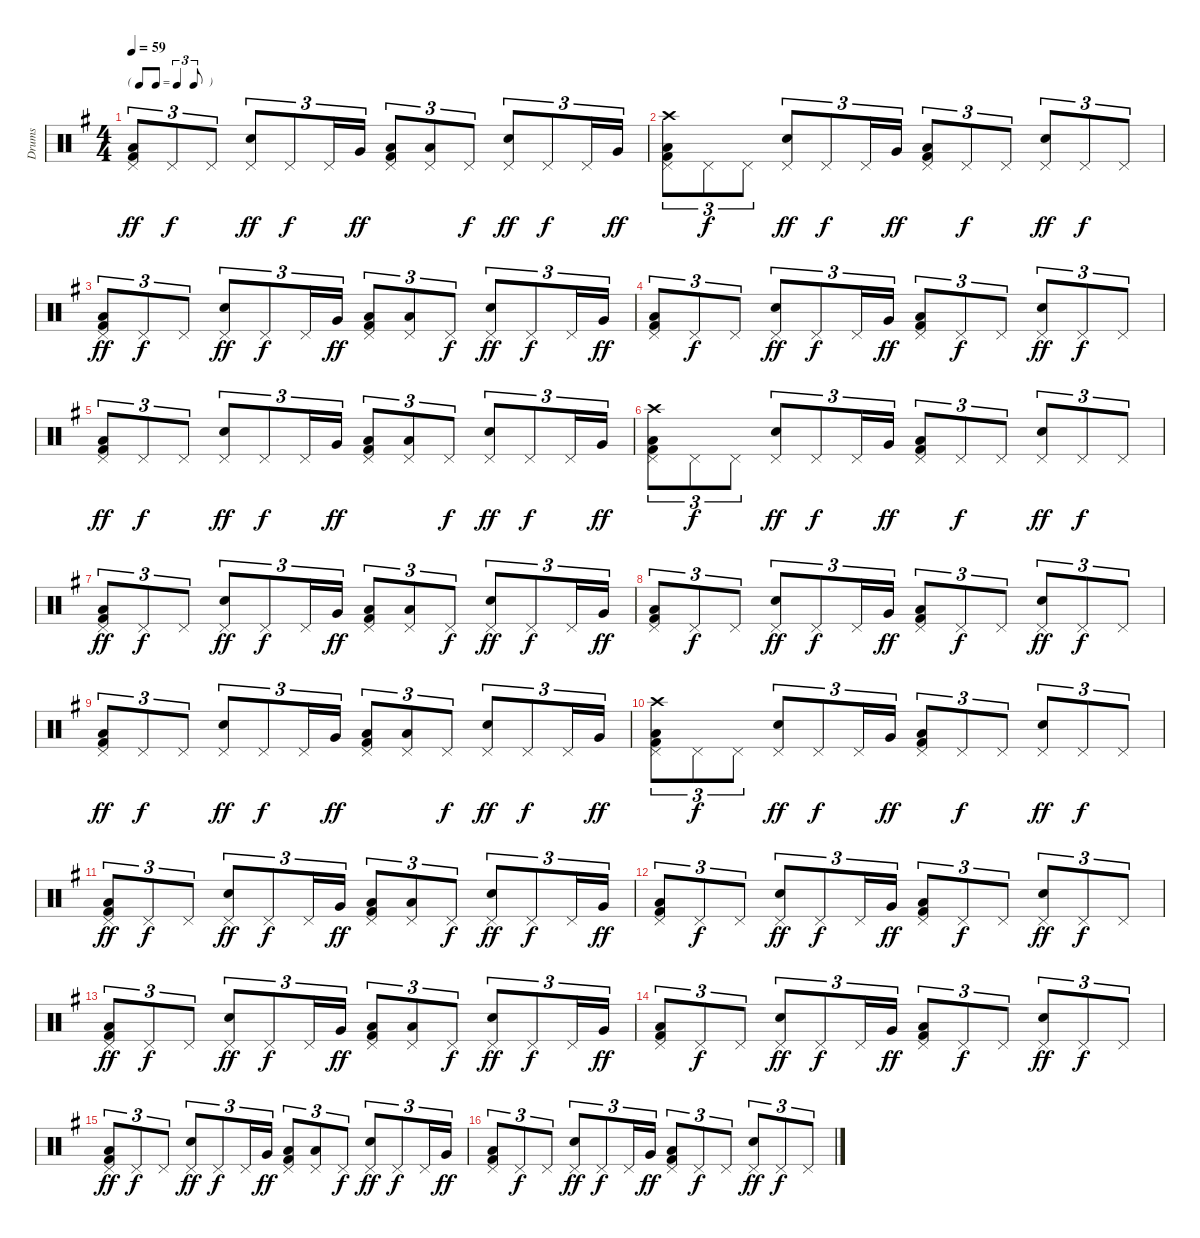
\track ("Drums" "Drums") {instrument percussion}
\staff {score}
\articulation defaults
\ts (4 4)
\tf triplet8th
\tempo 59
\clef neutral
\ks g
("Pedal Hi-Hat (hit)" "Low Floor Tom (hit)" "Kick (hit) 2").8{tu (3 2) dy ff} "Pedal Hi-Hat (hit)".8{tu (3 2) dy f} "Pedal Hi-Hat (hit)".8{tu (3 2)} ("Pedal Hi-Hat (hit)" "Electric Snare (hit)").8{tu (3 2) dy ff} "Pedal Hi-Hat (hit)".8{tu (3 2) dy f} "Pedal Hi-Hat (hit)".16{tu (3 2)} "Very Low Tom (hit)".16{tu (3 2) dy ff} ("Pedal Hi-Hat (hit)" "Low Floor Tom (hit)" "Kick (hit) 2").8{tu (3 2)} ("Pedal Hi-Hat (hit)" "Low Floor Tom (hit)").8{tu (3 2)} "Pedal Hi-Hat (hit)".8{tu (3 2) dy f} ("Pedal Hi-Hat (hit)" "Electric Snare (hit)").8{tu (3 2) dy ff} "Pedal Hi-Hat (hit)".8{tu (3 2) dy f} "Pedal Hi-Hat (hit)".16{tu (3 2)} "Very Low Tom (hit)".16{tu (3 2) dy ff} |
("Pedal Hi-Hat (hit)" "Crash high (hit)" "Low Floor Tom (hit)" "Kick (hit) 2").8{tu (3 2)} "Pedal Hi-Hat (hit)".8{tu (3 2) dy f} "Pedal Hi-Hat (hit)".8{tu (3 2)} ("Pedal Hi-Hat (hit)" "Electric Snare (hit)").8{tu (3 2) dy ff} "Pedal Hi-Hat (hit)".8{tu (3 2) dy f} "Pedal Hi-Hat (hit)".16{tu (3 2)} "Very Low Tom (hit)".16{tu (3 2) dy ff} ("Pedal Hi-Hat (hit)" "Low Floor Tom (hit)" "Kick (hit) 2").8{tu (3 2)} "Pedal Hi-Hat (hit)".8{tu (3 2) dy f} "Pedal Hi-Hat (hit)".8{tu (3 2)} ("Pedal Hi-Hat (hit)" "Electric Snare (hit)").8{tu (3 2) dy ff} "Pedal Hi-Hat (hit)".8{tu (3 2) dy f} "Pedal Hi-Hat (hit)".8{tu (3 2)} |
("Pedal Hi-Hat (hit)" "Low Floor Tom (hit)" "Kick (hit) 2").8{tu (3 2) dy ff} "Pedal Hi-Hat (hit)".8{tu (3 2) dy f} "Pedal Hi-Hat (hit)".8{tu (3 2)} ("Pedal Hi-Hat (hit)" "Electric Snare (hit)").8{tu (3 2) dy ff} "Pedal Hi-Hat (hit)".8{tu (3 2) dy f} "Pedal Hi-Hat (hit)".16{tu (3 2)} "Very Low Tom (hit)".16{tu (3 2) dy ff} ("Pedal Hi-Hat (hit)" "Low Floor Tom (hit)" "Kick (hit) 2").8{tu (3 2)} ("Pedal Hi-Hat (hit)" "Low Floor Tom (hit)").8{tu (3 2)} "Pedal Hi-Hat (hit)".8{tu (3 2) dy f} ("Pedal Hi-Hat (hit)" "Electric Snare (hit)").8{tu (3 2) dy ff} "Pedal Hi-Hat (hit)".8{tu (3 2) dy f} "Pedal Hi-Hat (hit)".16{tu (3 2)} "Very Low Tom (hit)".16{tu (3 2) dy ff} |
("Pedal Hi-Hat (hit)" "Low Floor Tom (hit)" "Kick (hit) 2").8{tu (3 2)} "Pedal Hi-Hat (hit)".8{tu (3 2) dy f} "Pedal Hi-Hat (hit)".8{tu (3 2)} ("Pedal Hi-Hat (hit)" "Electric Snare (hit)").8{tu (3 2) dy ff} "Pedal Hi-Hat (hit)".8{tu (3 2) dy f} "Pedal Hi-Hat (hit)".16{tu (3 2)} "Very Low Tom (hit)".16{tu (3 2) dy ff} ("Pedal Hi-Hat (hit)" "Low Floor Tom (hit)" "Kick (hit) 2").8{tu (3 2)} "Pedal Hi-Hat (hit)".8{tu (3 2) dy f} "Pedal Hi-Hat (hit)".8{tu (3 2)} ("Pedal Hi-Hat (hit)" "Electric Snare (hit)").8{tu (3 2) dy ff} "Pedal Hi-Hat (hit)".8{tu (3 2) dy f} "Pedal Hi-Hat (hit)".8{tu (3 2)} |
("Pedal Hi-Hat (hit)" "Low Floor Tom (hit)" "Kick (hit) 2").8{tu (3 2) dy ff} "Pedal Hi-Hat (hit)".8{tu (3 2) dy f} "Pedal Hi-Hat (hit)".8{tu (3 2)} ("Pedal Hi-Hat (hit)" "Electric Snare (hit)").8{tu (3 2) dy ff} "Pedal Hi-Hat (hit)".8{tu (3 2) dy f} "Pedal Hi-Hat (hit)".16{tu (3 2)} "Very Low Tom (hit)".16{tu (3 2) dy ff} ("Pedal Hi-Hat (hit)" "Low Floor Tom (hit)" "Kick (hit) 2").8{tu (3 2)} ("Pedal Hi-Hat (hit)" "Low Floor Tom (hit)").8{tu (3 2)} "Pedal Hi-Hat (hit)".8{tu (3 2) dy f} ("Pedal Hi-Hat (hit)" "Electric Snare (hit)").8{tu (3 2) dy ff} "Pedal Hi-Hat (hit)".8{tu (3 2) dy f} "Pedal Hi-Hat (hit)".16{tu (3 2)} "Very Low Tom (hit)".16{tu (3 2) dy ff} |
("Pedal Hi-Hat (hit)" "Crash high (hit)" "Low Floor Tom (hit)" "Kick (hit) 2").8{tu (3 2)} "Pedal Hi-Hat (hit)".8{tu (3 2) dy f} "Pedal Hi-Hat (hit)".8{tu (3 2)} ("Pedal Hi-Hat (hit)" "Electric Snare (hit)").8{tu (3 2) dy ff} "Pedal Hi-Hat (hit)".8{tu (3 2) dy f} "Pedal Hi-Hat (hit)".16{tu (3 2)} "Very Low Tom (hit)".16{tu (3 2) dy ff} ("Pedal Hi-Hat (hit)" "Low Floor Tom (hit)" "Kick (hit) 2").8{tu (3 2)} "Pedal Hi-Hat (hit)".8{tu (3 2) dy f} "Pedal Hi-Hat (hit)".8{tu (3 2)} ("Pedal Hi-Hat (hit)" "Electric Snare (hit)").8{tu (3 2) dy ff} "Pedal Hi-Hat (hit)".8{tu (3 2) dy f} "Pedal Hi-Hat (hit)".8{tu (3 2)} |
("Pedal Hi-Hat (hit)" "Low Floor Tom (hit)" "Kick (hit) 2").8{tu (3 2) dy ff} "Pedal Hi-Hat (hit)".8{tu (3 2) dy f} "Pedal Hi-Hat (hit)".8{tu (3 2)} ("Pedal Hi-Hat (hit)" "Electric Snare (hit)").8{tu (3 2) dy ff} "Pedal Hi-Hat (hit)".8{tu (3 2) dy f} "Pedal Hi-Hat (hit)".16{tu (3 2)} "Very Low Tom (hit)".16{tu (3 2) dy ff} ("Pedal Hi-Hat (hit)" "Low Floor Tom (hit)" "Kick (hit) 2").8{tu (3 2)} ("Pedal Hi-Hat (hit)" "Low Floor Tom (hit)").8{tu (3 2)} "Pedal Hi-Hat (hit)".8{tu (3 2) dy f} ("Pedal Hi-Hat (hit)" "Electric Snare (hit)").8{tu (3 2) dy ff} "Pedal Hi-Hat (hit)".8{tu (3 2) dy f} "Pedal Hi-Hat (hit)".16{tu (3 2)} "Very Low Tom (hit)".16{tu (3 2) dy ff} |
("Pedal Hi-Hat (hit)" "Low Floor Tom (hit)" "Kick (hit) 2").8{tu (3 2)} "Pedal Hi-Hat (hit)".8{tu (3 2) dy f} "Pedal Hi-Hat (hit)".8{tu (3 2)} ("Pedal Hi-Hat (hit)" "Electric Snare (hit)").8{tu (3 2) dy ff} "Pedal Hi-Hat (hit)".8{tu (3 2) dy f} "Pedal Hi-Hat (hit)".16{tu (3 2)} "Very Low Tom (hit)".16{tu (3 2) dy ff} ("Pedal Hi-Hat (hit)" "Low Floor Tom (hit)" "Kick (hit) 2").8{tu (3 2)} "Pedal Hi-Hat (hit)".8{tu (3 2) dy f} "Pedal Hi-Hat (hit)".8{tu (3 2)} ("Pedal Hi-Hat (hit)" "Electric Snare (hit)").8{tu (3 2) dy ff} "Pedal Hi-Hat (hit)".8{tu (3 2) dy f} "Pedal Hi-Hat (hit)".8{tu (3 2)} |
("Pedal Hi-Hat (hit)" "Low Floor Tom (hit)" "Kick (hit) 2").8{tu (3 2) dy ff} "Pedal Hi-Hat (hit)".8{tu (3 2) dy f} "Pedal Hi-Hat (hit)".8{tu (3 2)} ("Pedal Hi-Hat (hit)" "Electric Snare (hit)").8{tu (3 2) dy ff} "Pedal Hi-Hat (hit)".8{tu (3 2) dy f} "Pedal Hi-Hat (hit)".16{tu (3 2)} "Very Low Tom (hit)".16{tu (3 2) dy ff} ("Pedal Hi-Hat (hit)" "Low Floor Tom (hit)" "Kick (hit) 2").8{tu (3 2)} ("Pedal Hi-Hat (hit)" "Low Floor Tom (hit)").8{tu (3 2)} "Pedal Hi-Hat (hit)".8{tu (3 2) dy f} ("Pedal Hi-Hat (hit)" "Electric Snare (hit)").8{tu (3 2) dy ff} "Pedal Hi-Hat (hit)".8{tu (3 2) dy f} "Pedal Hi-Hat (hit)".16{tu (3 2)} "Very Low Tom (hit)".16{tu (3 2) dy ff} |
("Pedal Hi-Hat (hit)" "Crash high (hit)" "Low Floor Tom (hit)" "Kick (hit) 2").8{tu (3 2)} "Pedal Hi-Hat (hit)".8{tu (3 2) dy f} "Pedal Hi-Hat (hit)".8{tu (3 2)} ("Pedal Hi-Hat (hit)" "Electric Snare (hit)").8{tu (3 2) dy ff} "Pedal Hi-Hat (hit)".8{tu (3 2) dy f} "Pedal Hi-Hat (hit)".16{tu (3 2)} "Very Low Tom (hit)".16{tu (3 2) dy ff} ("Pedal Hi-Hat (hit)" "Low Floor Tom (hit)" "Kick (hit) 2").8{tu (3 2)} "Pedal Hi-Hat (hit)".8{tu (3 2) dy f} "Pedal Hi-Hat (hit)".8{tu (3 2)} ("Pedal Hi-Hat (hit)" "Electric Snare (hit)").8{tu (3 2) dy ff} "Pedal Hi-Hat (hit)".8{tu (3 2) dy f} "Pedal Hi-Hat (hit)".8{tu (3 2)} |
("Pedal Hi-Hat (hit)" "Low Floor Tom (hit)" "Kick (hit) 2").8{tu (3 2) dy ff} "Pedal Hi-Hat (hit)".8{tu (3 2) dy f} "Pedal Hi-Hat (hit)".8{tu (3 2)} ("Pedal Hi-Hat (hit)" "Electric Snare (hit)").8{tu (3 2) dy ff} "Pedal Hi-Hat (hit)".8{tu (3 2) dy f} "Pedal Hi-Hat (hit)".16{tu (3 2)} "Very Low Tom (hit)".16{tu (3 2) dy ff} ("Pedal Hi-Hat (hit)" "Low Floor Tom (hit)" "Kick (hit) 2").8{tu (3 2)} ("Pedal Hi-Hat (hit)" "Low Floor Tom (hit)").8{tu (3 2)} "Pedal Hi-Hat (hit)".8{tu (3 2) dy f} ("Pedal Hi-Hat (hit)" "Electric Snare (hit)").8{tu (3 2) dy ff} "Pedal Hi-Hat (hit)".8{tu (3 2) dy f} "Pedal Hi-Hat (hit)".16{tu (3 2)} "Very Low Tom (hit)".16{tu (3 2) dy ff} |
("Pedal Hi-Hat (hit)" "Low Floor Tom (hit)" "Kick (hit) 2").8{tu (3 2)} "Pedal Hi-Hat (hit)".8{tu (3 2) dy f} "Pedal Hi-Hat (hit)".8{tu (3 2)} ("Pedal Hi-Hat (hit)" "Electric Snare (hit)").8{tu (3 2) dy ff} "Pedal Hi-Hat (hit)".8{tu (3 2) dy f} "Pedal Hi-Hat (hit)".16{tu (3 2)} "Very Low Tom (hit)".16{tu (3 2) dy ff} ("Pedal Hi-Hat (hit)" "Low Floor Tom (hit)" "Kick (hit) 2").8{tu (3 2)} "Pedal Hi-Hat (hit)".8{tu (3 2) dy f} "Pedal Hi-Hat (hit)".8{tu (3 2)} ("Pedal Hi-Hat (hit)" "Electric Snare (hit)").8{tu (3 2) dy ff} "Pedal Hi-Hat (hit)".8{tu (3 2) dy f} "Pedal Hi-Hat (hit)".8{tu (3 2)} |
("Pedal Hi-Hat (hit)" "Low Floor Tom (hit)" "Kick (hit) 2").8{tu (3 2) dy ff} "Pedal Hi-Hat (hit)".8{tu (3 2) dy f} "Pedal Hi-Hat (hit)".8{tu (3 2)} ("Pedal Hi-Hat (hit)" "Electric Snare (hit)").8{tu (3 2) dy ff} "Pedal Hi-Hat (hit)".8{tu (3 2) dy f} "Pedal Hi-Hat (hit)".16{tu (3 2)} "Very Low Tom (hit)".16{tu (3 2) dy ff} ("Pedal Hi-Hat (hit)" "Low Floor Tom (hit)" "Kick (hit) 2").8{tu (3 2)} ("Pedal Hi-Hat (hit)" "Low Floor Tom (hit)").8{tu (3 2)} "Pedal Hi-Hat (hit)".8{tu (3 2) dy f} ("Pedal Hi-Hat (hit)" "Electric Snare (hit)").8{tu (3 2) dy ff} "Pedal Hi-Hat (hit)".8{tu (3 2) dy f} "Pedal Hi-Hat (hit)".16{tu (3 2)} "Very Low Tom (hit)".16{tu (3 2) dy ff} |
("Pedal Hi-Hat (hit)" "Low Floor Tom (hit)" "Kick (hit) 2").8{tu (3 2)} "Pedal Hi-Hat (hit)".8{tu (3 2) dy f} "Pedal Hi-Hat (hit)".8{tu (3 2)} ("Pedal Hi-Hat (hit)" "Electric Snare (hit)").8{tu (3 2) dy ff} "Pedal Hi-Hat (hit)".8{tu (3 2) dy f} "Pedal Hi-Hat (hit)".16{tu (3 2)} "Very Low Tom (hit)".16{tu (3 2) dy ff} ("Pedal Hi-Hat (hit)" "Low Floor Tom (hit)" "Kick (hit) 2").8{tu (3 2)} "Pedal Hi-Hat (hit)".8{tu (3 2) dy f} "Pedal Hi-Hat (hit)".8{tu (3 2)} ("Pedal Hi-Hat (hit)" "Electric Snare (hit)").8{tu (3 2) dy ff} "Pedal Hi-Hat (hit)".8{tu (3 2) dy f} "Pedal Hi-Hat (hit)".8{tu (3 2)} |
("Pedal Hi-Hat (hit)" "Low Floor Tom (hit)" "Kick (hit) 2").8{tu (3 2) dy ff} "Pedal Hi-Hat (hit)".8{tu (3 2) dy f} "Pedal Hi-Hat (hit)".8{tu (3 2)} ("Pedal Hi-Hat (hit)" "Electric Snare (hit)").8{tu (3 2) dy ff} "Pedal Hi-Hat (hit)".8{tu (3 2) dy f} "Pedal Hi-Hat (hit)".16{tu (3 2)} "Very Low Tom (hit)".16{tu (3 2) dy ff} ("Pedal Hi-Hat (hit)" "Low Floor Tom (hit)" "Kick (hit) 2").8{tu (3 2)} ("Pedal Hi-Hat (hit)" "Low Floor Tom (hit)").8{tu (3 2)} "Pedal Hi-Hat (hit)".8{tu (3 2) dy f} ("Pedal Hi-Hat (hit)" "Electric Snare (hit)").8{tu (3 2) dy ff} "Pedal Hi-Hat (hit)".8{tu (3 2) dy f} "Pedal Hi-Hat (hit)".16{tu (3 2)} "Very Low Tom (hit)".16{tu (3 2) dy ff} |
("Pedal Hi-Hat (hit)" "Low Floor Tom (hit)" "Kick (hit) 2").8{tu (3 2)} "Pedal Hi-Hat (hit)".8{tu (3 2) dy f} "Pedal Hi-Hat (hit)".8{tu (3 2)} ("Pedal Hi-Hat (hit)" "Electric Snare (hit)").8{tu (3 2) dy ff} "Pedal Hi-Hat (hit)".8{tu (3 2) dy f} "Pedal Hi-Hat (hit)".16{tu (3 2)} "Very Low Tom (hit)".16{tu (3 2) dy ff} ("Pedal Hi-Hat (hit)" "Low Floor Tom (hit)" "Kick (hit) 2").8{tu (3 2)} "Pedal Hi-Hat (hit)".8{tu (3 2) dy f} "Pedal Hi-Hat (hit)".8{tu (3 2)} ("Pedal Hi-Hat (hit)" "Electric Snare (hit)").8{tu (3 2) dy ff} "Pedal Hi-Hat (hit)".8{tu (3 2) dy f} "Pedal Hi-Hat (hit)".8{tu (3 2)}
